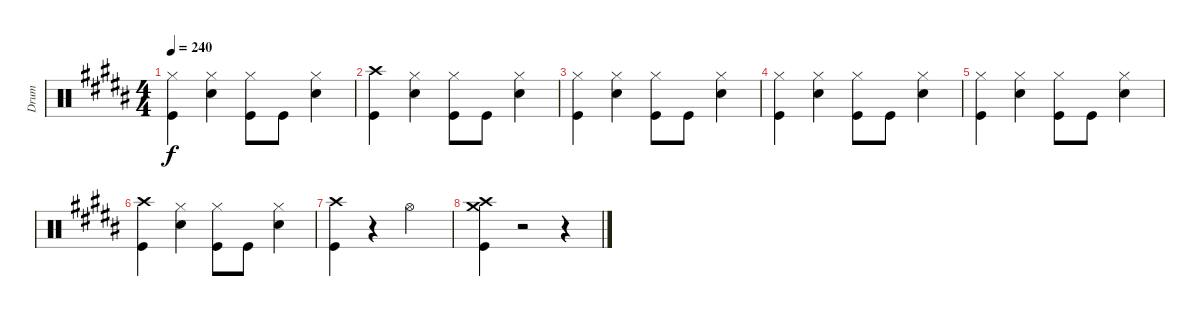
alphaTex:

\track ("Drum" "Drum") {instrument percussion}
\staff {score}
\articulation defaults
\ts (4 4)
\tempo 240
\clef neutral
\ks b
("Kick (hit)" "Hi-Hat (closed)").4{dy f} ("Hi-Hat (closed)" "Snare (hit) 2").4 ("Hi-Hat (closed)" "Kick (hit)").8 "Kick (hit)".8 ("Snare (hit) 2" "Hi-Hat (closed)").4 |
("Kick (hit)" "Crash high (hit)").4 ("Hi-Hat (closed)" "Snare (hit) 2").4 ("Hi-Hat (closed)" "Kick (hit)").8 "Kick (hit)".8 ("Snare (hit) 2" "Hi-Hat (closed)").4 |
("Kick (hit)" "Hi-Hat (closed)").4 ("Hi-Hat (closed)" "Snare (hit) 2").4 ("Hi-Hat (closed)" "Kick (hit)").8 "Kick (hit)".8 ("Snare (hit) 2" "Hi-Hat (closed)").4 |
("Kick (hit)" "Hi-Hat (closed)").4 ("Hi-Hat (closed)" "Snare (hit) 2").4 ("Hi-Hat (closed)" "Kick (hit)").8 "Kick (hit)".8 ("Snare (hit) 2" "Hi-Hat (closed)").4 |
("Kick (hit)" "Hi-Hat (closed)").4 ("Hi-Hat (closed)" "Snare (hit) 2").4 ("Hi-Hat (closed)" "Kick (hit)").8 "Kick (hit)".8 ("Snare (hit) 2" "Hi-Hat (closed)").4 |
("Kick (hit)" "Crash high (hit)").4 ("Hi-Hat (closed)" "Snare (hit) 2").4 ("Hi-Hat (closed)" "Kick (hit)").8 "Kick (hit)".8 ("Snare (hit) 2" "Hi-Hat (closed)").4 |
("Kick (hit)" "Crash high (hit)").4 r.4 "Hi-Hat (open)".2 |
("Kick (hit)" "Crash high (hit)" "Crash medium (hit)").4 r.2 r.4
